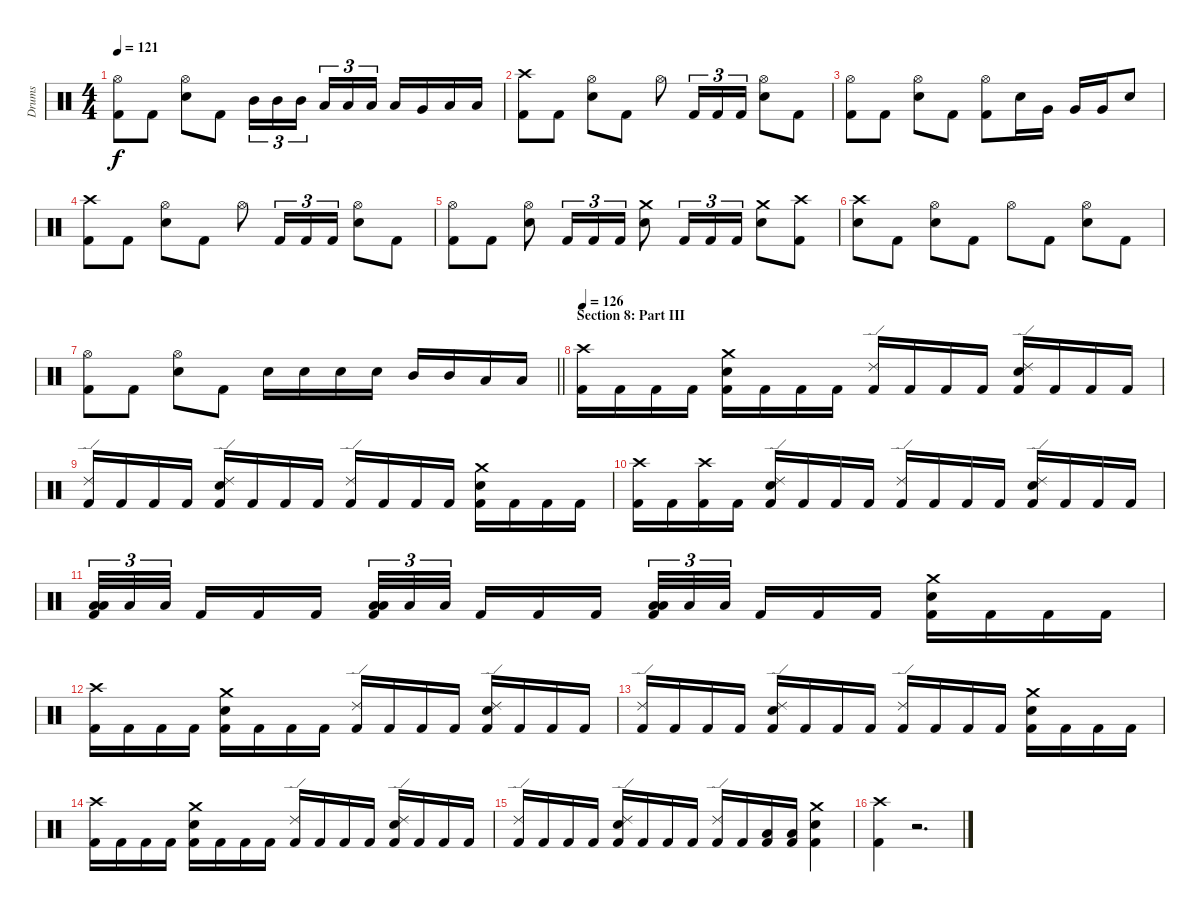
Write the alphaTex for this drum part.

\track ("Drums" "Drums") {instrument percussion}
\staff {score}
\articulation defaults
\ts (4 4)
\tempo 121
\clef neutral
\ks c
("Hi-Hat (open)" "Kick (hit) 2").8{dy f} "Kick (hit) 2".8 ("Hi-Hat (open)" "Electric Snare (hit)").8 "Kick (hit) 2".8 "Mid Tom (hit)".16{tu (3 2)} "Mid Tom (hit)".16{tu (3 2)} "Mid Tom (hit)".16{tu (3 2) beam splitsecondary} "Low Tom (hit)".16{tu (3 2)} "Low Tom (hit)".16{tu (3 2)} "Low Tom (hit)".16{tu (3 2)} "Low Tom (hit)".16 "Very Low Tom (hit)".16 "Low Floor Tom (hit)".16 "Low Floor Tom (hit)".16 |
("Crash high (hit)" "Kick (hit) 2").8 "Kick (hit) 2".8 ("Hi-Hat (open)" "Electric Snare (hit)").8 "Kick (hit) 2".8 "Hi-Hat (open)".8 "Kick (hit) 2".16{tu (3 2)} "Kick (hit) 2".16{tu (3 2)} "Kick (hit) 2".16{tu (3 2)} ("Hi-Hat (open)" "Electric Snare (hit)").8 "Kick (hit) 2".8 |
("Hi-Hat (open)" "Kick (hit) 2").8 "Kick (hit) 2".8 ("Hi-Hat (open)" "Electric Snare (hit)").8 "Kick (hit) 2".8 ("Hi-Hat (open)" "Kick (hit) 2").8 "Electric Snare (hit)".16 "Very Low Tom (hit)".16 "Very Low Tom (hit)".16 "Very Low Tom (hit)".16 "Electric Snare (hit)".8 |
("Crash high (hit)" "Kick (hit) 2").8 "Kick (hit) 2".8 ("Hi-Hat (open)" "Electric Snare (hit)").8 "Kick (hit) 2".8 "Hi-Hat (open)".8 "Kick (hit) 2".16{tu (3 2)} "Kick (hit) 2".16{tu (3 2)} "Kick (hit) 2".16{tu (3 2)} ("Hi-Hat (open)" "Electric Snare (hit)").8 "Kick (hit) 2".8 |
("Hi-Hat (open)" "Kick (hit) 2").8 "Kick (hit) 2".8 ("Hi-Hat (open)" "Electric Snare (hit)").8 "Kick (hit) 2".16{tu (3 2)} "Kick (hit) 2".16{tu (3 2)} "Kick (hit) 2".16{tu (3 2)} ("Crash medium (hit)" "Electric Snare (hit)").8 "Kick (hit) 2".16{tu (3 2)} "Kick (hit) 2".16{tu (3 2)} "Kick (hit) 2".16{tu (3 2)} ("Crash medium (hit)" "Electric Snare (hit)").8 ("Crash high (hit)" "Kick (hit) 2").8 |
("Crash high (hit)" "Electric Snare (hit)").8 "Kick (hit) 2".8 ("Hi-Hat (open)" "Electric Snare (hit)").8 "Kick (hit) 2".8 "Hi-Hat (open)".8 "Kick (hit) 2".8 ("Hi-Hat (open)" "Electric Snare (hit)").8 "Kick (hit) 2".8 |
\barLineRight lightlight
("Hi-Hat (open)" "Kick (hit) 2").8 "Kick (hit) 2".8 ("Hi-Hat (open)" "Electric Snare (hit)").8 "Kick (hit) 2".8 "Electric Snare (hit)".16 "Electric Snare (hit)".16 "Electric Snare (hit)".16 "Electric Snare (hit)".16 "Mid Tom (hit)".16 "Mid Tom (hit)".16 "Low Tom (hit)".16 "Low Tom (hit)".16 |
\section ("" "Section 8: Part III")
\tempo 126
("Crash high (hit)" "Kick (hit) 2").16 "Kick (hit) 2".16 "Kick (hit) 2".16 "Kick (hit) 2".16 ("Crash medium (hit)" "Electric Snare (hit)" "Kick (hit) 2").16 "Kick (hit) 2".16 "Kick (hit) 2".16 "Kick (hit) 2".16 ("Ride (edge) 2" "Kick (hit) 2").16 "Kick (hit) 2".16 "Kick (hit) 2".16 "Kick (hit) 2".16 ("Ride (edge) 2" "Electric Snare (hit)" "Kick (hit) 2").16 "Kick (hit) 2".16 "Kick (hit) 2".16 "Kick (hit) 2".16 |
("Ride (edge) 2" "Kick (hit) 2").16 "Kick (hit) 2".16 "Kick (hit) 2".16 "Kick (hit) 2".16 ("Ride (edge) 2" "Electric Snare (hit)" "Kick (hit) 2").16 "Kick (hit) 2".16 "Kick (hit) 2".16 "Kick (hit) 2".16 ("Ride (edge) 2" "Kick (hit) 2").16 "Kick (hit) 2".16 "Kick (hit) 2".16 "Kick (hit) 2".16 ("Crash medium (hit)" "Electric Snare (hit)" "Kick (hit) 2").16 "Kick (hit) 2".16 "Kick (hit) 2".16 "Kick (hit) 2".16 |
("Crash high (hit)" "Kick (hit) 2").16 "Kick (hit) 2".16 ("Crash high (hit)" "Kick (hit) 2").16 "Kick (hit) 2".16 ("Ride (edge) 2" "Electric Snare (hit)" "Kick (hit) 2").16 "Kick (hit) 2".16 "Kick (hit) 2".16 "Kick (hit) 2".16 ("Ride (edge) 2" "Kick (hit) 2").16 "Kick (hit) 2".16 "Kick (hit) 2".16 "Kick (hit) 2".16 ("Ride (edge) 2" "Electric Snare (hit)" "Kick (hit) 2").16 "Kick (hit) 2".16 "Kick (hit) 2".16 "Kick (hit) 2".16 |
("Low Tom (hit)" "Low Tom (hit)" "Kick (hit) 2").32{tu (3 2)} "Low Tom (hit)".32{tu (3 2)} "Low Tom (hit)".32{tu (3 2) beam splitsecondary} "Kick (hit) 2".16 "Kick (hit) 2".16 "Kick (hit) 2".16 ("Low Tom (hit)" "Low Tom (hit)" "Kick (hit) 2").32{tu (3 2)} "Low Tom (hit)".32{tu (3 2)} "Low Tom (hit)".32{tu (3 2) beam splitsecondary} "Kick (hit) 2".16 "Kick (hit) 2".16 "Kick (hit) 2".16 ("Low Tom (hit)" "Low Tom (hit)" "Kick (hit) 2").32{tu (3 2)} "Low Tom (hit)".32{tu (3 2)} "Low Tom (hit)".32{tu (3 2) beam splitsecondary} "Kick (hit) 2".16 "Kick (hit) 2".16 "Kick (hit) 2".16 ("Crash medium (hit)" "Electric Snare (hit)" "Kick (hit) 2").16 "Kick (hit) 2".16 "Kick (hit) 2".16 "Kick (hit) 2".16 |
("Crash high (hit)" "Kick (hit) 2").16 "Kick (hit) 2".16 "Kick (hit) 2".16 "Kick (hit) 2".16 ("Crash medium (hit)" "Electric Snare (hit)" "Kick (hit) 2").16 "Kick (hit) 2".16 "Kick (hit) 2".16 "Kick (hit) 2".16 ("Ride (edge) 2" "Kick (hit) 2").16 "Kick (hit) 2".16 "Kick (hit) 2".16 "Kick (hit) 2".16 ("Ride (edge) 2" "Electric Snare (hit)" "Kick (hit) 2").16 "Kick (hit) 2".16 "Kick (hit) 2".16 "Kick (hit) 2".16 |
("Ride (edge) 2" "Kick (hit) 2").16 "Kick (hit) 2".16 "Kick (hit) 2".16 "Kick (hit) 2".16 ("Ride (edge) 2" "Electric Snare (hit)" "Kick (hit) 2").16 "Kick (hit) 2".16 "Kick (hit) 2".16 "Kick (hit) 2".16 ("Ride (edge) 2" "Kick (hit) 2").16 "Kick (hit) 2".16 "Kick (hit) 2".16 "Kick (hit) 2".16 ("Crash medium (hit)" "Electric Snare (hit)" "Kick (hit) 2").16 "Kick (hit) 2".16 "Kick (hit) 2".16 "Kick (hit) 2".16 |
("Crash high (hit)" "Kick (hit) 2").16 "Kick (hit) 2".16 "Kick (hit) 2".16 "Kick (hit) 2".16 ("Crash medium (hit)" "Electric Snare (hit)" "Kick (hit) 2").16 "Kick (hit) 2".16 "Kick (hit) 2".16 "Kick (hit) 2".16 ("Ride (edge) 2" "Kick (hit) 2").16 "Kick (hit) 2".16 "Kick (hit) 2".16 "Kick (hit) 2".16 ("Ride (edge) 2" "Electric Snare (hit)" "Kick (hit) 2").16 "Kick (hit) 2".16 "Kick (hit) 2".16 "Kick (hit) 2".16 |
("Ride (edge) 2" "Kick (hit) 2").16 "Kick (hit) 2".16 "Kick (hit) 2".16 "Kick (hit) 2".16 ("Ride (edge) 2" "Electric Snare (hit)" "Kick (hit) 2").16 "Kick (hit) 2".16 "Kick (hit) 2".16 "Kick (hit) 2".16 ("Ride (edge) 2" "Kick (hit) 2").16 "Kick (hit) 2".16 ("Low Tom (hit)" "Kick (hit) 2").16 ("Low Tom (hit)" "Kick (hit) 2").16 ("Crash medium (hit)" "Electric Snare (hit)" "Kick (hit) 2").4 |
("Crash high (hit)" "Kick (hit) 2").4 r.2{d}
